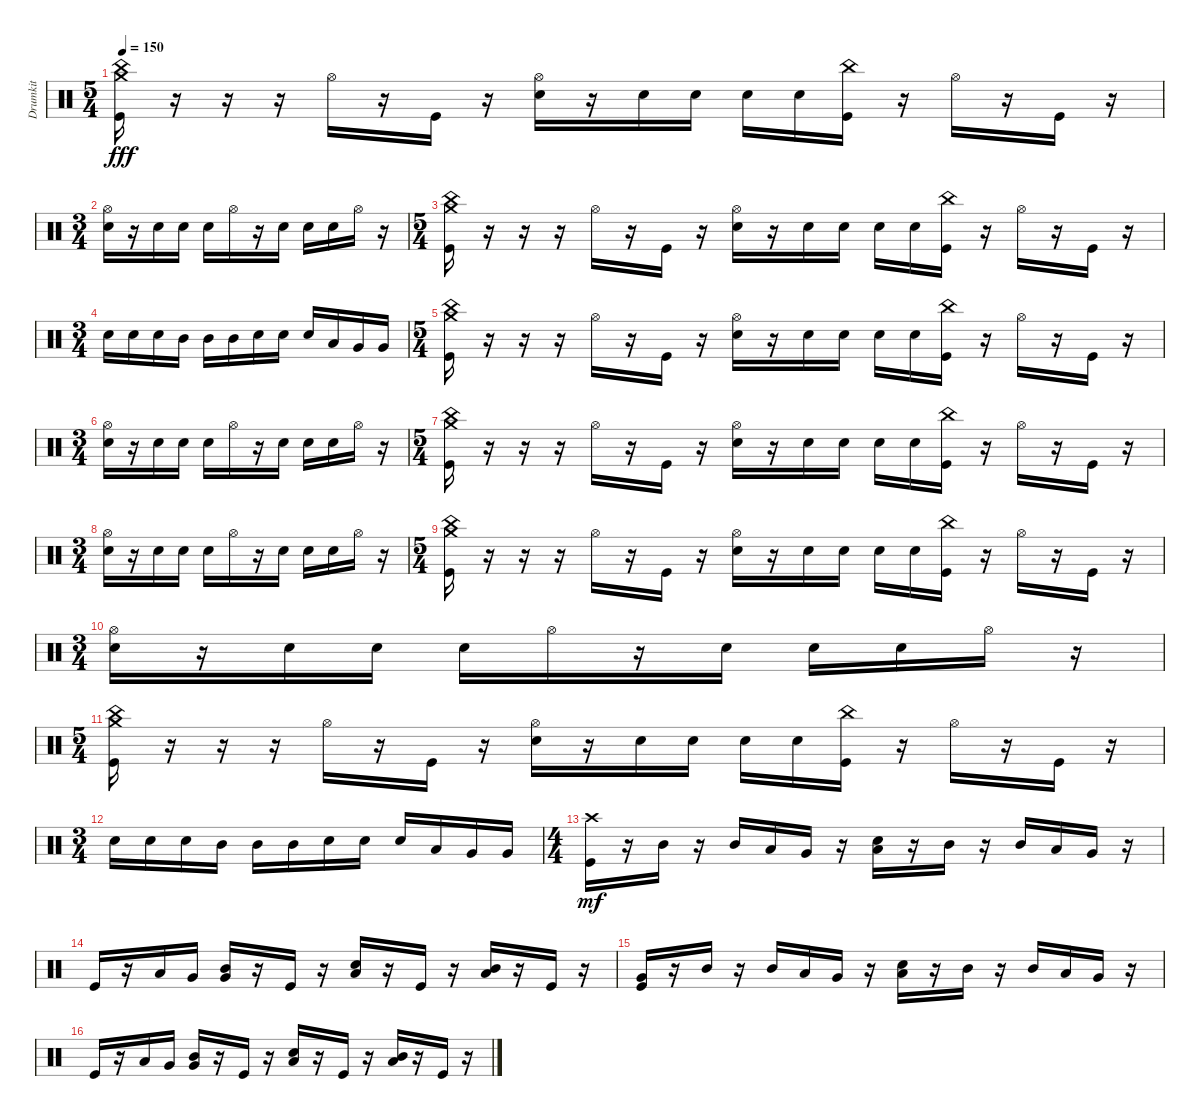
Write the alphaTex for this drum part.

\track ("Drumkit" "Drumkit") {instrument percussion}
\staff {score}
\articulation defaults
\ts (5 4)
\tempo 150
\clef neutral
\ks c
("Kick (hit)" "Crash medium (hit)" "China (hit)").16{dy fff} r.16 r.16 r.16 "Hi-Hat (open)".16 r.16 "Kick (hit)".16 r.16 ("Hi-Hat (open)" "Snare (hit) 2").16 r.16 "Snare (hit) 2".16 "Snare (hit) 2".16 "Snare (hit) 2".16 "Snare (hit) 2".16 ("Kick (hit)" "China (hit)").16 r.16 "Hi-Hat (open)".16 r.16 "Kick (hit)".16 r.16 |
\ts (3 4)
("Hi-Hat (open)" "Snare (hit) 2").16 r.16 "Snare (hit) 2".16 "Snare (hit) 2".16 "Snare (hit) 2".16 "Hi-Hat (open)".16 r.16 "Snare (hit) 2".16 "Snare (hit) 2".16 "Snare (hit) 2".16 "Hi-Hat (open)".16 r.16 |
\ts (5 4)
("Kick (hit)" "Crash medium (hit)" "China (hit)").16 r.16 r.16 r.16 "Hi-Hat (open)".16 r.16 "Kick (hit)".16 r.16 ("Hi-Hat (open)" "Snare (hit) 2").16 r.16 "Snare (hit) 2".16 "Snare (hit) 2".16 "Snare (hit) 2".16 "Snare (hit) 2".16 ("Kick (hit)" "China (hit)").16 r.16 "Hi-Hat (open)".16 r.16 "Kick (hit)".16 r.16 |
\ts (3 4)
"Snare (hit) 2".16 "Snare (hit) 2".16 "Snare (hit) 2".16 "Mid Tom (hit)".16 "Mid Tom (hit)".16 "Mid Tom (hit)".16 "Snare (hit) 2".16 "Snare (hit) 2".16 "Snare (hit) 2".16 "Low Tom (hit)".16 "Very Low Tom (hit)".16 "Very Low Tom (hit)".16 |
\ts (5 4)
("Kick (hit)" "Crash medium (hit)" "China (hit)").16 r.16 r.16 r.16 "Hi-Hat (open)".16 r.16 "Kick (hit)".16 r.16 ("Hi-Hat (open)" "Snare (hit) 2").16 r.16 "Snare (hit) 2".16 "Snare (hit) 2".16 "Snare (hit) 2".16 "Snare (hit) 2".16 ("Kick (hit)" "China (hit)").16 r.16 "Hi-Hat (open)".16 r.16 "Kick (hit)".16 r.16 |
\ts (3 4)
("Hi-Hat (open)" "Snare (hit) 2").16 r.16 "Snare (hit) 2".16 "Snare (hit) 2".16 "Snare (hit) 2".16 "Hi-Hat (open)".16 r.16 "Snare (hit) 2".16 "Snare (hit) 2".16 "Snare (hit) 2".16 "Hi-Hat (open)".16 r.16 |
\ts (5 4)
("Kick (hit)" "Crash medium (hit)" "China (hit)").16 r.16 r.16 r.16 "Hi-Hat (open)".16 r.16 "Kick (hit)".16 r.16 ("Hi-Hat (open)" "Snare (hit) 2").16 r.16 "Snare (hit) 2".16 "Snare (hit) 2".16 "Snare (hit) 2".16 "Snare (hit) 2".16 ("Kick (hit)" "China (hit)").16 r.16 "Hi-Hat (open)".16 r.16 "Kick (hit)".16 r.16 |
\ts (3 4)
("Hi-Hat (open)" "Snare (hit) 2").16 r.16 "Snare (hit) 2".16 "Snare (hit) 2".16 "Snare (hit) 2".16 "Hi-Hat (open)".16 r.16 "Snare (hit) 2".16 "Snare (hit) 2".16 "Snare (hit) 2".16 "Hi-Hat (open)".16 r.16 |
\ts (5 4)
("Kick (hit)" "Crash medium (hit)" "China (hit)").16 r.16 r.16 r.16 "Hi-Hat (open)".16 r.16 "Kick (hit)".16 r.16 ("Hi-Hat (open)" "Snare (hit) 2").16 r.16 "Snare (hit) 2".16 "Snare (hit) 2".16 "Snare (hit) 2".16 "Snare (hit) 2".16 ("Kick (hit)" "China (hit)").16 r.16 "Hi-Hat (open)".16 r.16 "Kick (hit)".16 r.16 |
\ts (3 4)
("Hi-Hat (open)" "Snare (hit) 2").16 r.16 "Snare (hit) 2".16 "Snare (hit) 2".16 "Snare (hit) 2".16 "Hi-Hat (open)".16 r.16 "Snare (hit) 2".16 "Snare (hit) 2".16 "Snare (hit) 2".16 "Hi-Hat (open)".16 r.16 |
\ts (5 4)
("Kick (hit)" "Crash medium (hit)" "China (hit)").16 r.16 r.16 r.16 "Hi-Hat (open)".16 r.16 "Kick (hit)".16 r.16 ("Hi-Hat (open)" "Snare (hit) 2").16 r.16 "Snare (hit) 2".16 "Snare (hit) 2".16 "Snare (hit) 2".16 "Snare (hit) 2".16 ("Kick (hit)" "China (hit)").16 r.16 "Hi-Hat (open)".16 r.16 "Kick (hit)".16 r.16 |
\ts (3 4)
"Snare (hit) 2".16 "Snare (hit) 2".16 "Snare (hit) 2".16 "Mid Tom (hit)".16 "Mid Tom (hit)".16 "Mid Tom (hit)".16 "Snare (hit) 2".16 "Snare (hit) 2".16 "Snare (hit) 2".16 "Low Tom (hit)".16 "Very Low Tom (hit)".16 "Very Low Tom (hit)".16 |
\ts (4 4)
("Kick (hit)" "Crash high (hit)").16{dy mf} r.16 "Mid Tom (hit)".16 r.16 "Mid Tom (hit)".16 "Low Tom (hit)".16 "Very Low Tom (hit)".16 r.16 ("Low Floor Tom (hit)" "Snare (hit) 2").16 r.16 "Mid Tom (hit)".16 r.16 "Mid Tom (hit)".16 "Low Tom (hit)".16 "Very Low Tom (hit)".16 r.16 |
"Kick (hit)".16 r.16 "Low Tom (hit)".16 "Very Low Tom (hit)".16 ("Very Low Tom (hit)" "Mid Tom (hit)").16 r.16 "Kick (hit)".16 r.16 ("Low Floor Tom (hit)" "Snare (hit) 2").16 r.16 "Kick (hit)".16 r.16 ("Low Floor Tom (hit)" "Mid Tom (hit)").16 r.16 "Kick (hit)".16 r.16 |
("Kick (hit)" "Very Low Tom (hit)").16 r.16 "Mid Tom (hit)".16 r.16 "Mid Tom (hit)".16 "Low Tom (hit)".16 "Very Low Tom (hit)".16 r.16 ("Low Floor Tom (hit)" "Snare (hit) 2").16 r.16 "Mid Tom (hit)".16 r.16 "Mid Tom (hit)".16 "Low Tom (hit)".16 "Very Low Tom (hit)".16 r.16 |
"Kick (hit)".16 r.16 "Low Tom (hit)".16 "Very Low Tom (hit)".16 ("Very Low Tom (hit)" "Mid Tom (hit)").16 r.16 "Kick (hit)".16 r.16 ("Low Floor Tom (hit)" "Snare (hit) 2").16 r.16 "Kick (hit)".16 r.16 ("Low Floor Tom (hit)" "Mid Tom (hit)").16 r.16 "Kick (hit)".16 r.16
